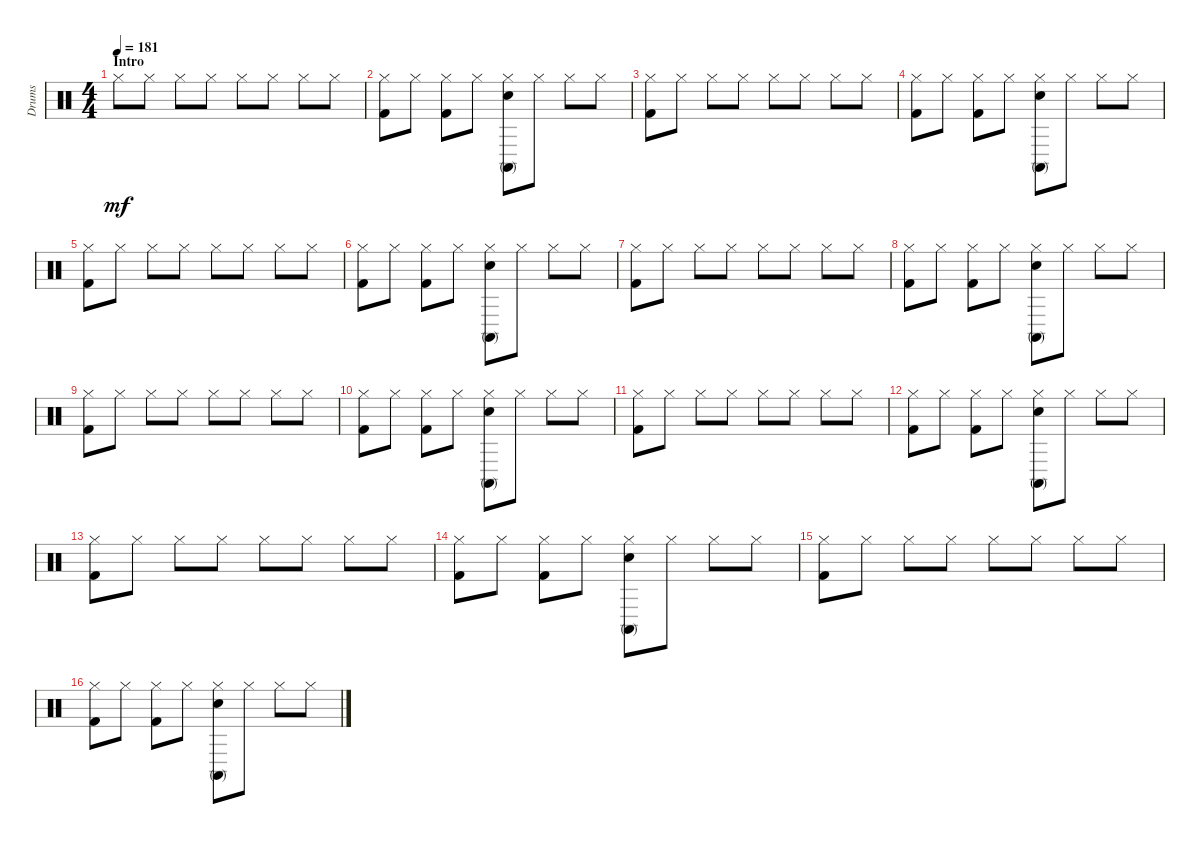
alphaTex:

\track ("Drums" "Drums") {instrument percussion}
\staff {score}
\articulation defaults
\ts (4 4)
\section ("" "Intro")
\tempo 181
\clef neutral
\ks c "Hi-Hat (closed)".8{dy mf} "Hi-Hat (closed)".8 "Hi-Hat (closed)".8 "Hi-Hat (closed)".8 "Hi-Hat (closed)".8 "Hi-Hat (closed)".8 "Hi-Hat (closed)".8 "Hi-Hat (closed)".8
|
("Hi-Hat (closed)" "Kick (hit) 2").8 "Hi-Hat (closed)".8 ("Hi-Hat (closed)" "Kick (hit) 2").8 "Hi-Hat (closed)".8 ("Hi-Hat (closed)" "Conga high (mute)" "Electric Snare (hit)").8 "Hi-Hat (closed)".8 "Hi-Hat (closed)".8 "Hi-Hat (closed)".8 |
("Hi-Hat (closed)" "Kick (hit) 2").8 "Hi-Hat (closed)".8 "Hi-Hat (closed)".8 "Hi-Hat (closed)".8 "Hi-Hat (closed)".8 "Hi-Hat (closed)".8 "Hi-Hat (closed)".8 "Hi-Hat (closed)".8 |
("Hi-Hat (closed)" "Kick (hit) 2").8 "Hi-Hat (closed)".8 ("Hi-Hat (closed)" "Kick (hit) 2").8 "Hi-Hat (closed)".8 ("Hi-Hat (closed)" "Conga high (mute)" "Electric Snare (hit)").8 "Hi-Hat (closed)".8 "Hi-Hat (closed)".8 "Hi-Hat (closed)".8 |
("Hi-Hat (closed)" "Kick (hit) 2").8 "Hi-Hat (closed)".8 "Hi-Hat (closed)".8 "Hi-Hat (closed)".8 "Hi-Hat (closed)".8 "Hi-Hat (closed)".8 "Hi-Hat (closed)".8 "Hi-Hat (closed)".8 |
("Hi-Hat (closed)" "Kick (hit) 2").8 "Hi-Hat (closed)".8 ("Hi-Hat (closed)" "Kick (hit) 2").8 "Hi-Hat (closed)".8 ("Hi-Hat (closed)" "Conga high (mute)" "Electric Snare (hit)").8 "Hi-Hat (closed)".8 "Hi-Hat (closed)".8 "Hi-Hat (closed)".8 |
("Hi-Hat (closed)" "Kick (hit) 2").8 "Hi-Hat (closed)".8 "Hi-Hat (closed)".8 "Hi-Hat (closed)".8 "Hi-Hat (closed)".8 "Hi-Hat (closed)".8 "Hi-Hat (closed)".8 "Hi-Hat (closed)".8 |
("Hi-Hat (closed)" "Kick (hit) 2").8 "Hi-Hat (closed)".8 ("Hi-Hat (closed)" "Kick (hit) 2").8 "Hi-Hat (closed)".8 ("Hi-Hat (closed)" "Conga high (mute)" "Electric Snare (hit)").8 "Hi-Hat (closed)".8 "Hi-Hat (closed)".8 "Hi-Hat (closed)".8 |
("Hi-Hat (closed)" "Kick (hit) 2").8 "Hi-Hat (closed)".8 "Hi-Hat (closed)".8 "Hi-Hat (closed)".8 "Hi-Hat (closed)".8 "Hi-Hat (closed)".8 "Hi-Hat (closed)".8 "Hi-Hat (closed)".8 |
("Hi-Hat (closed)" "Kick (hit) 2").8 "Hi-Hat (closed)".8 ("Hi-Hat (closed)" "Kick (hit) 2").8 "Hi-Hat (closed)".8 ("Hi-Hat (closed)" "Conga high (mute)" "Electric Snare (hit)").8 "Hi-Hat (closed)".8 "Hi-Hat (closed)".8 "Hi-Hat (closed)".8 |
("Hi-Hat (closed)" "Kick (hit) 2").8 "Hi-Hat (closed)".8 "Hi-Hat (closed)".8 "Hi-Hat (closed)".8 "Hi-Hat (closed)".8 "Hi-Hat (closed)".8 "Hi-Hat (closed)".8 "Hi-Hat (closed)".8 |
("Hi-Hat (closed)" "Kick (hit) 2").8 "Hi-Hat (closed)".8 ("Hi-Hat (closed)" "Kick (hit) 2").8 "Hi-Hat (closed)".8 ("Hi-Hat (closed)" "Conga high (mute)" "Electric Snare (hit)").8 "Hi-Hat (closed)".8 "Hi-Hat (closed)".8 "Hi-Hat (closed)".8 |
("Hi-Hat (closed)" "Kick (hit) 2").8 "Hi-Hat (closed)".8 "Hi-Hat (closed)".8 "Hi-Hat (closed)".8 "Hi-Hat (closed)".8 "Hi-Hat (closed)".8 "Hi-Hat (closed)".8 "Hi-Hat (closed)".8 |
("Hi-Hat (closed)" "Kick (hit) 2").8 "Hi-Hat (closed)".8 ("Hi-Hat (closed)" "Kick (hit) 2").8 "Hi-Hat (closed)".8 ("Hi-Hat (closed)" "Conga high (mute)" "Electric Snare (hit)").8 "Hi-Hat (closed)".8 "Hi-Hat (closed)".8 "Hi-Hat (closed)".8 |
("Hi-Hat (closed)" "Kick (hit) 2").8 "Hi-Hat (closed)".8 "Hi-Hat (closed)".8 "Hi-Hat (closed)".8 "Hi-Hat (closed)".8 "Hi-Hat (closed)".8 "Hi-Hat (closed)".8 "Hi-Hat (closed)".8 |
("Hi-Hat (closed)" "Kick (hit) 2").8 "Hi-Hat (closed)".8 ("Hi-Hat (closed)" "Kick (hit) 2").8 "Hi-Hat (closed)".8 ("Hi-Hat (closed)" "Conga high (mute)" "Electric Snare (hit)").8 "Hi-Hat (closed)".8 "Hi-Hat (closed)".8 "Hi-Hat (closed)".8
